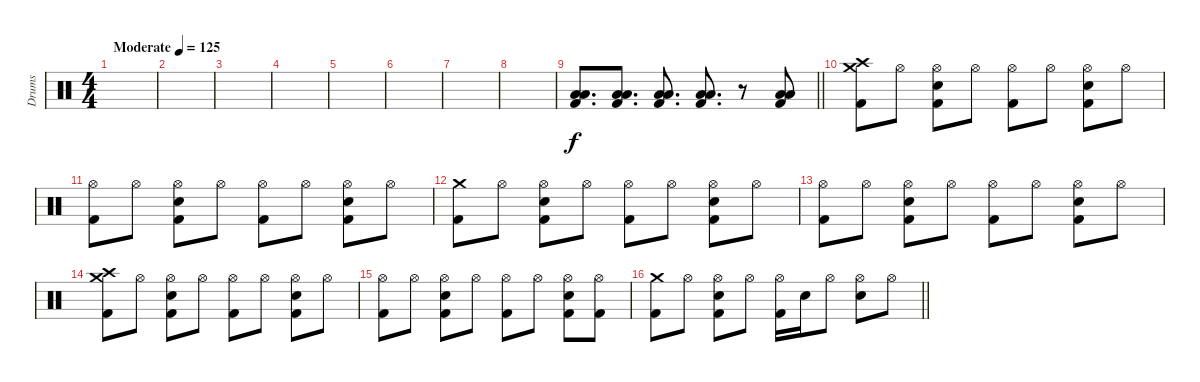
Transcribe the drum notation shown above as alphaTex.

\track ("Drums" "Drums") {instrument percussion}
\staff {score}
\articulation defaults
\ts (4 4)
\tempo (125 "Moderate")
\clef neutral
\ks c
|
|
|
|
|
|
|
|
\barLineRight lightlight
("Low Tom (hit)" "Low Floor Tom (hit)" "Kick (hit) 2").8{d} ("Low Tom (hit)" "Low Floor Tom (hit)" "Kick (hit) 2").8{d} ("Low Tom (hit)" "Low Floor Tom (hit)" "Kick (hit) 2").8{d} ("Low Tom (hit)" "Low Floor Tom (hit)" "Kick (hit) 2").8{d} r.8 ("Low Tom (hit)" "Low Floor Tom (hit)" "Kick (hit) 2").8 |
("Crash high (hit)" "Crash medium (hit)" "Kick (hit) 2").8 "Hi-Hat (open)".8 ("Hi-Hat (open)" "Electric Snare (hit)" "Kick (hit) 2").8 "Hi-Hat (open)".8 ("Hi-Hat (open)" "Kick (hit) 2").8 "Hi-Hat (open)".8 ("Hi-Hat (open)" "Electric Snare (hit)" "Kick (hit) 2").8 "Hi-Hat (open)".8 |
("Hi-Hat (open)" "Kick (hit) 2").8 "Hi-Hat (open)".8 ("Hi-Hat (open)" "Electric Snare (hit)" "Kick (hit) 2").8 "Hi-Hat (open)".8 ("Hi-Hat (open)" "Kick (hit) 2").8 "Hi-Hat (open)".8 ("Hi-Hat (open)" "Electric Snare (hit)" "Kick (hit) 2").8 "Hi-Hat (open)".8 |
("Crash medium (hit)" "Kick (hit) 2").8 "Hi-Hat (open)".8 ("Hi-Hat (open)" "Electric Snare (hit)" "Kick (hit) 2").8 "Hi-Hat (open)".8 ("Hi-Hat (open)" "Kick (hit) 2").8 "Hi-Hat (open)".8 ("Hi-Hat (open)" "Electric Snare (hit)" "Kick (hit) 2").8 "Hi-Hat (open)".8 |
("Hi-Hat (open)" "Kick (hit) 2").8 "Hi-Hat (open)".8 ("Hi-Hat (open)" "Electric Snare (hit)" "Kick (hit) 2").8 "Hi-Hat (open)".8 ("Hi-Hat (open)" "Kick (hit) 2").8 "Hi-Hat (open)".8 ("Hi-Hat (open)" "Electric Snare (hit)" "Kick (hit) 2").8 "Hi-Hat (open)".8 |
("Crash high (hit)" "Crash medium (hit)" "Kick (hit) 2").8 "Hi-Hat (open)".8 ("Hi-Hat (open)" "Electric Snare (hit)" "Kick (hit) 2").8 "Hi-Hat (open)".8 ("Hi-Hat (open)" "Kick (hit) 2").8 "Hi-Hat (open)".8 ("Hi-Hat (open)" "Electric Snare (hit)" "Kick (hit) 2").8 "Hi-Hat (open)".8 |
("Hi-Hat (open)" "Kick (hit) 2").8 "Hi-Hat (open)".8 ("Hi-Hat (open)" "Electric Snare (hit)" "Kick (hit) 2").8 "Hi-Hat (open)".8 ("Hi-Hat (open)" "Kick (hit) 2").8 "Hi-Hat (open)".8 ("Hi-Hat (open)" "Electric Snare (hit)" "Kick (hit) 2").8 ("Hi-Hat (open)" "Kick (hit) 2").8 |
\barLineRight lightlight
("Crash medium (hit)" "Kick (hit) 2").8 "Hi-Hat (open)".8 ("Hi-Hat (open)" "Electric Snare (hit)" "Kick (hit) 2").8 "Hi-Hat (open)".8 ("Hi-Hat (open)" "Kick (hit) 2").16 "Electric Snare (hit)".16 "Hi-Hat (open)".8 ("Hi-Hat (open)" "Electric Snare (hit)").8 "Hi-Hat (open)".8
